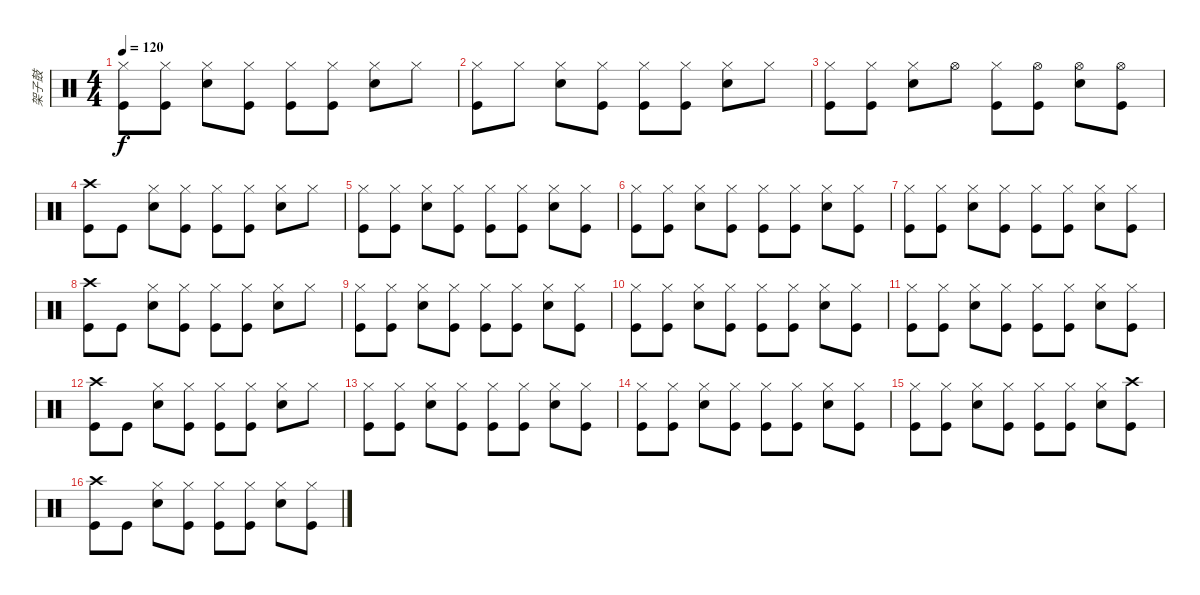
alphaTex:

\track ("架子鼓" "架子鼓") {instrument percussion}
\staff {score}
\articulation defaults
\ts (4 4)
\tempo 120
\clef neutral
\ks c
("Hi-Hat (closed)" "Kick (hit)").8{dy f} ("Hi-Hat (closed)" "Kick (hit)").8 ("Hi-Hat (closed)" "Snare (hit) 2").8 ("Hi-Hat (closed)" "Kick (hit)").8 ("Hi-Hat (closed)" "Kick (hit)").8 ("Hi-Hat (closed)" "Kick (hit)").8 ("Hi-Hat (closed)" "Snare (hit) 2").8 "Hi-Hat (closed)".8 |
("Hi-Hat (closed)" "Kick (hit)").8 "Hi-Hat (closed)".8 ("Hi-Hat (closed)" "Snare (hit) 2").8 ("Hi-Hat (closed)" "Kick (hit)").8 ("Hi-Hat (closed)" "Kick (hit)").8 ("Hi-Hat (closed)" "Kick (hit)").8 ("Hi-Hat (closed)" "Snare (hit) 2").8 "Hi-Hat (closed)".8 |
("Hi-Hat (closed)" "Kick (hit)").8 ("Hi-Hat (closed)" "Kick (hit)").8 ("Hi-Hat (closed)" "Snare (hit) 2").8 "Hi-Hat (open)".8 ("Hi-Hat (closed)" "Kick (hit)").8 ("Hi-Hat (open)" "Kick (hit)").8 ("Hi-Hat (open)" "Snare (hit) 2").8 ("Hi-Hat (open)" "Kick (hit)").8 |
("Crash high (hit)" "Kick (hit)").8 "Kick (hit)".8 ("Hi-Hat (closed)" "Snare (hit) 2").8 ("Hi-Hat (closed)" "Kick (hit)").8 ("Hi-Hat (closed)" "Kick (hit)").8 ("Hi-Hat (closed)" "Kick (hit)").8 ("Hi-Hat (closed)" "Snare (hit) 2").8 "Hi-Hat (closed)".8 |
("Hi-Hat (closed)" "Kick (hit)").8 ("Hi-Hat (closed)" "Kick (hit)").8 ("Hi-Hat (closed)" "Snare (hit) 2").8 ("Hi-Hat (closed)" "Kick (hit)").8 ("Hi-Hat (closed)" "Kick (hit)").8 ("Hi-Hat (closed)" "Kick (hit)").8 ("Hi-Hat (closed)" "Snare (hit) 2").8 ("Hi-Hat (closed)" "Kick (hit)").8 |
("Hi-Hat (closed)" "Kick (hit)").8 ("Hi-Hat (closed)" "Kick (hit)").8 ("Hi-Hat (closed)" "Snare (hit) 2").8 ("Hi-Hat (closed)" "Kick (hit)").8 ("Hi-Hat (closed)" "Kick (hit)").8 ("Hi-Hat (closed)" "Kick (hit)").8 ("Hi-Hat (closed)" "Snare (hit) 2").8 ("Hi-Hat (closed)" "Kick (hit)").8 |
("Hi-Hat (closed)" "Kick (hit)").8 ("Hi-Hat (closed)" "Kick (hit)").8 ("Hi-Hat (closed)" "Snare (hit) 2").8 ("Hi-Hat (closed)" "Kick (hit)").8 ("Hi-Hat (closed)" "Kick (hit)").8 ("Hi-Hat (closed)" "Kick (hit)").8 ("Hi-Hat (closed)" "Snare (hit) 2").8 ("Hi-Hat (closed)" "Kick (hit)").8 |
("Crash high (hit)" "Kick (hit)").8 "Kick (hit)".8 ("Hi-Hat (closed)" "Snare (hit) 2").8 ("Hi-Hat (closed)" "Kick (hit)").8 ("Hi-Hat (closed)" "Kick (hit)").8 ("Hi-Hat (closed)" "Kick (hit)").8 ("Hi-Hat (closed)" "Snare (hit) 2").8 "Hi-Hat (closed)".8 |
("Hi-Hat (closed)" "Kick (hit)").8 ("Hi-Hat (closed)" "Kick (hit)").8 ("Hi-Hat (closed)" "Snare (hit) 2").8 ("Hi-Hat (closed)" "Kick (hit)").8 ("Hi-Hat (closed)" "Kick (hit)").8 ("Hi-Hat (closed)" "Kick (hit)").8 ("Hi-Hat (closed)" "Snare (hit) 2").8 ("Hi-Hat (closed)" "Kick (hit)").8 |
("Hi-Hat (closed)" "Kick (hit)").8 ("Hi-Hat (closed)" "Kick (hit)").8 ("Hi-Hat (closed)" "Snare (hit) 2").8 ("Hi-Hat (closed)" "Kick (hit)").8 ("Hi-Hat (closed)" "Kick (hit)").8 ("Hi-Hat (closed)" "Kick (hit)").8 ("Hi-Hat (closed)" "Snare (hit) 2").8 ("Hi-Hat (closed)" "Kick (hit)").8 |
("Hi-Hat (closed)" "Kick (hit)").8 ("Hi-Hat (closed)" "Kick (hit)").8 ("Hi-Hat (closed)" "Snare (hit) 2").8 ("Hi-Hat (closed)" "Kick (hit)").8 ("Hi-Hat (closed)" "Kick (hit)").8 ("Hi-Hat (closed)" "Kick (hit)").8 ("Hi-Hat (closed)" "Snare (hit) 2").8 ("Hi-Hat (closed)" "Kick (hit)").8 |
("Crash high (hit)" "Kick (hit)").8 "Kick (hit)".8 ("Hi-Hat (closed)" "Snare (hit) 2").8 ("Hi-Hat (closed)" "Kick (hit)").8 ("Hi-Hat (closed)" "Kick (hit)").8 ("Hi-Hat (closed)" "Kick (hit)").8 ("Hi-Hat (closed)" "Snare (hit) 2").8 "Hi-Hat (closed)".8 |
("Hi-Hat (closed)" "Kick (hit)").8 ("Hi-Hat (closed)" "Kick (hit)").8 ("Hi-Hat (closed)" "Snare (hit) 2").8 ("Hi-Hat (closed)" "Kick (hit)").8 ("Hi-Hat (closed)" "Kick (hit)").8 ("Hi-Hat (closed)" "Kick (hit)").8 ("Hi-Hat (closed)" "Snare (hit) 2").8 ("Hi-Hat (closed)" "Kick (hit)").8 |
("Hi-Hat (closed)" "Kick (hit)").8 ("Hi-Hat (closed)" "Kick (hit)").8 ("Hi-Hat (closed)" "Snare (hit) 2").8 ("Hi-Hat (closed)" "Kick (hit)").8 ("Hi-Hat (closed)" "Kick (hit)").8 ("Hi-Hat (closed)" "Kick (hit)").8 ("Hi-Hat (closed)" "Snare (hit) 2").8 ("Hi-Hat (closed)" "Kick (hit)").8 |
("Hi-Hat (closed)" "Kick (hit)").8 ("Hi-Hat (closed)" "Kick (hit)").8 ("Hi-Hat (closed)" "Snare (hit) 2").8 ("Hi-Hat (closed)" "Kick (hit)").8 ("Hi-Hat (closed)" "Kick (hit)").8 ("Hi-Hat (closed)" "Kick (hit)").8 ("Hi-Hat (closed)" "Snare (hit) 2").8 ("Crash high (hit)" "Kick (hit)").8 |
("Crash high (hit)" "Kick (hit)").8 "Kick (hit)".8 ("Hi-Hat (closed)" "Snare (hit) 2").8 ("Hi-Hat (closed)" "Kick (hit)").8 ("Hi-Hat (closed)" "Kick (hit)").8 ("Hi-Hat (closed)" "Kick (hit)").8 ("Hi-Hat (closed)" "Snare (hit) 2").8 ("Hi-Hat (closed)" "Kick (hit)").8
